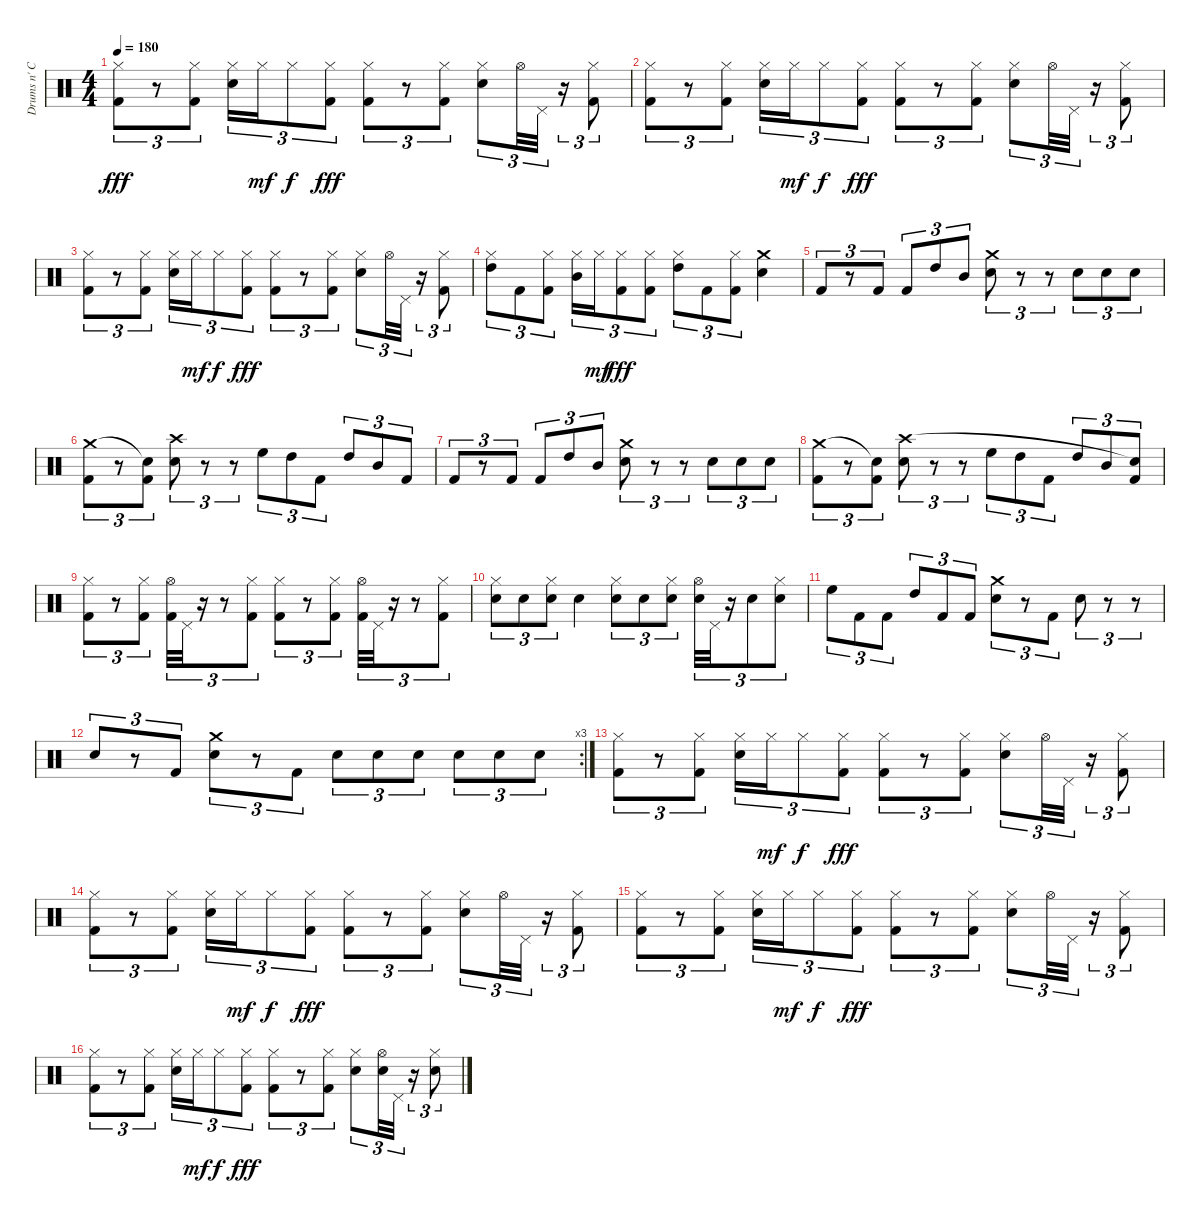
\track ("Drums n' Cymbals" "Drums n' C") {instrument percussion}
\staff {score}
\articulation defaults
\ts (4 4)
\tempo 180
\clef neutral
\ks c
("Hi-Hat (closed)" "Kick (hit) 2").8{tu (3 2) dy fff} r.8{tu (3 2)} ("Hi-Hat (closed)" "Kick (hit) 2").8{tu (3 2)} ("Hi-Hat (closed)" "Electric Snare (hit)").16{tu (3 2)} "Hi-Hat (closed)".16{tu (3 2) dy mf} "Hi-Hat (closed)".8{tu (3 2) dy f} ("Hi-Hat (closed)" "Kick (hit) 2").8{tu (3 2) dy fff} ("Hi-Hat (closed)" "Kick (hit) 2").8{tu (3 2)} r.8{tu (3 2)} ("Hi-Hat (closed)" "Kick (hit) 2").8{tu (3 2)} ("Hi-Hat (closed)" "Electric Snare (hit)").8{tu (3 2)} "Hi-Hat (open)".32{tu (3 2)} "Pedal Hi-Hat (hit)".32{tu (3 2)} r.16{tu (3 2)} ("Hi-Hat (closed)" "Kick (hit) 2").8{tu (3 2)} |
("Hi-Hat (closed)" "Kick (hit) 2").8{tu (3 2)} r.8{tu (3 2)} ("Hi-Hat (closed)" "Kick (hit) 2").8{tu (3 2)} ("Hi-Hat (closed)" "Electric Snare (hit)").16{tu (3 2)} "Hi-Hat (closed)".16{tu (3 2) dy mf} "Hi-Hat (closed)".8{tu (3 2) dy f} ("Hi-Hat (closed)" "Kick (hit) 2").8{tu (3 2) dy fff} ("Hi-Hat (closed)" "Kick (hit) 2").8{tu (3 2)} r.8{tu (3 2)} ("Hi-Hat (closed)" "Kick (hit) 2").8{tu (3 2)} ("Hi-Hat (closed)" "Electric Snare (hit)").8{tu (3 2)} "Hi-Hat (open)".32{tu (3 2)} "Pedal Hi-Hat (hit)".32{tu (3 2)} r.16{tu (3 2)} ("Hi-Hat (closed)" "Kick (hit) 2").8{tu (3 2)} |
("Hi-Hat (closed)" "Kick (hit) 2").8{tu (3 2)} r.8{tu (3 2)} ("Hi-Hat (closed)" "Kick (hit) 2").8{tu (3 2)} ("Hi-Hat (closed)" "Electric Snare (hit)").16{tu (3 2)} "Hi-Hat (closed)".16{tu (3 2) dy mf} "Hi-Hat (closed)".8{tu (3 2) dy f} ("Hi-Hat (closed)" "Kick (hit) 2").8{tu (3 2) dy fff} ("Hi-Hat (closed)" "Kick (hit) 2").8{tu (3 2)} r.8{tu (3 2)} ("Hi-Hat (closed)" "Kick (hit) 2").8{tu (3 2)} ("Hi-Hat (closed)" "Electric Snare (hit)").8{tu (3 2)} "Hi-Hat (open)".32{tu (3 2)} "Pedal Hi-Hat (hit)".32{tu (3 2)} r.16{tu (3 2)} ("Hi-Hat (closed)" "Kick (hit) 2").8{tu (3 2)} |
("Hi-Hat (closed)" "High Tom (hit)").8{tu (3 2)} "Kick (hit) 2".8{tu (3 2)} ("Hi-Hat (closed)" "Kick (hit) 2").8{tu (3 2)} ("Hi-Hat (closed)" "Mid Tom (hit)").16{tu (3 2)} "Hi-Hat (closed)".16{tu (3 2) dy mf} ("Hi-Hat (closed)" "Kick (hit) 2").8{tu (3 2) dy fff} ("Hi-Hat (closed)" "Kick (hit) 2").8{tu (3 2)} ("Hi-Hat (closed)" "High Tom (hit)").8{tu (3 2)} "Kick (hit) 2".8{tu (3 2)} ("Hi-Hat (closed)" "Kick (hit) 2").8{tu (3 2)} ("Electric Snare (hit)" "Crash medium (hit)").4 |
"Kick (hit) 2".8{tu (3 2)} r.8{tu (3 2)} "Kick (hit) 2".8{tu (3 2)} "Kick (hit) 2".8{tu (3 2)} "High Tom (hit)".8{tu (3 2)} "Mid Tom (hit)".8{tu (3 2)} ("Electric Snare (hit)" "Crash medium (hit)").8{tu (3 2)} r.8{tu (3 2)} r.8{tu (3 2)} "Electric Snare (hit)".8{tu (3 2)} "Electric Snare (hit)".8{tu (3 2)} "Electric Snare (hit)".8{tu (3 2)} |
("Kick (hit) 2" "Crash medium (hit)").8{tu (3 2)} r.8{tu (3 2)} ("Kick (hit) 2" "Snare (hit)"{t}).8{tu (3 2)} ("Electric Snare (hit)" "Crash high (hit)").8{tu (3 2)} r.8{tu (3 2)} r.8{tu (3 2)} "High Floor Tom (hit)".8{tu (3 2)} "High Tom (hit)".8{tu (3 2)} "Kick (hit) 2".8{tu (3 2)} "High Tom (hit)".8{tu (3 2)} "Mid Tom (hit)".8{tu (3 2)} "Kick (hit) 2".8{tu (3 2)} |
"Kick (hit) 2".8{tu (3 2)} r.8{tu (3 2)} "Kick (hit) 2".8{tu (3 2)} "Kick (hit) 2".8{tu (3 2)} "High Tom (hit)".8{tu (3 2)} "Mid Tom (hit)".8{tu (3 2)} ("Electric Snare (hit)" "Crash medium (hit)").8{tu (3 2)} r.8{tu (3 2)} r.8{tu (3 2)} "Electric Snare (hit)".8{tu (3 2)} "Electric Snare (hit)".8{tu (3 2)} "Electric Snare (hit)".8{tu (3 2)} |
("Kick (hit) 2" "Crash medium (hit)").8{tu (3 2)} r.8{tu (3 2)} ("Kick (hit) 2" "Snare (hit)"{t}).8{tu (3 2)} ("Electric Snare (hit)" "Crash high (hit)").8{tu (3 2)} r.8{tu (3 2)} r.8{tu (3 2)} "High Floor Tom (hit)".8{tu (3 2)} "High Tom (hit)".8{tu (3 2)} "Kick (hit) 2".8{tu (3 2)} "High Tom (hit)".8{tu (3 2)} "Mid Tom (hit)".8{tu (3 2)} ("Kick (hit) 2" "Snare (hit)"{t}).8{tu (3 2)} |
("Kick (hit) 2" "Hi-Hat (closed)").8{tu (3 2)} r.8{tu (3 2)} ("Hi-Hat (closed)" "Kick (hit) 2").8{tu (3 2)} ("Hi-Hat (open)" "Kick (hit) 2").32{tu (3 2)} "Pedal Hi-Hat (hit)".32{tu (3 2)} r.16{tu (3 2)} r.8{tu (3 2)} ("Hi-Hat (closed)" "Kick (hit) 2").8{tu (3 2)} ("Hi-Hat (closed)" "Kick (hit) 2").8{tu (3 2)} r.8{tu (3 2)} ("Hi-Hat (closed)" "Kick (hit) 2").8{tu (3 2)} ("Hi-Hat (open)" "Kick (hit) 2").32{tu (3 2)} "Pedal Hi-Hat (hit)".32{tu (3 2)} r.16{tu (3 2)} r.8{tu (3 2)} ("Hi-Hat (closed)" "Kick (hit) 2").8{tu (3 2)} |
("Hi-Hat (closed)" "Electric Snare (hit)").8{tu (3 2)} "Electric Snare (hit)".8{tu (3 2)} ("Hi-Hat (closed)" "Electric Snare (hit)").8{tu (3 2)} "Electric Snare (hit)".4 ("Hi-Hat (closed)" "Electric Snare (hit)").8{tu (3 2)} "Electric Snare (hit)".8{tu (3 2)} ("Hi-Hat (closed)" "Electric Snare (hit)").8{tu (3 2)} ("Hi-Hat (open)" "Electric Snare (hit)").32{tu (3 2)} "Pedal Hi-Hat (hit)".32{tu (3 2)} r.16{tu (3 2)} "Electric Snare (hit)".8{tu (3 2)} ("Hi-Hat (closed)" "Electric Snare (hit)").8{tu (3 2)} |
"High Floor Tom (hit)".8{tu (3 2)} "Kick (hit) 2".8{tu (3 2)} "Kick (hit) 2".8{tu (3 2)} "High Tom (hit)".8{tu (3 2)} "Kick (hit) 2".8{tu (3 2)} "Kick (hit) 2".8{tu (3 2)} ("Electric Snare (hit)" "Crash medium (hit)").8{tu (3 2)} r.8{tu (3 2)} "Kick (hit) 2".8{tu (3 2)} "Electric Snare (hit)".8{tu (3 2)} r.8{tu (3 2)} r.8{tu (3 2)} |
\rc 3 "Electric Snare (hit)".8{tu (3 2)}
r.8{tu (3 2)} "Kick (hit) 2".8{tu (3 2)} ("Electric Snare (hit)" "Crash medium (hit)").8{tu (3 2)} r.8{tu (3 2)} "Kick (hit) 2".8{tu (3 2)} "Electric Snare (hit)".8{tu (3 2)} "Electric Snare (hit)".8{tu (3 2)} "Electric Snare (hit)".8{tu (3 2)} "Electric Snare (hit)".8{tu (3 2)} "Electric Snare (hit)".8{tu (3 2)} "Electric Snare (hit)".8{tu (3 2)} |
("Hi-Hat (closed)" "Kick (hit) 2").8{tu (3 2)} r.8{tu (3 2)} ("Hi-Hat (closed)" "Kick (hit) 2").8{tu (3 2)} ("Hi-Hat (closed)" "Electric Snare (hit)").16{tu (3 2)} "Hi-Hat (closed)".16{tu (3 2) dy mf} "Hi-Hat (closed)".8{tu (3 2) dy f} ("Hi-Hat (closed)" "Kick (hit) 2").8{tu (3 2) dy fff} ("Hi-Hat (closed)" "Kick (hit) 2").8{tu (3 2)} r.8{tu (3 2)} ("Hi-Hat (closed)" "Kick (hit) 2").8{tu (3 2)} ("Hi-Hat (closed)" "Electric Snare (hit)").8{tu (3 2)} "Hi-Hat (open)".32{tu (3 2)} "Pedal Hi-Hat (hit)".32{tu (3 2)} r.16{tu (3 2)} ("Hi-Hat (closed)" "Kick (hit) 2").8{tu (3 2)} |
("Hi-Hat (closed)" "Kick (hit) 2").8{tu (3 2) volume 0} r.8{tu (3 2)} ("Hi-Hat (closed)" "Kick (hit) 2").8{tu (3 2)} ("Hi-Hat (closed)" "Electric Snare (hit)").16{tu (3 2)} "Hi-Hat (closed)".16{tu (3 2) dy mf} "Hi-Hat (closed)".8{tu (3 2) dy f} ("Hi-Hat (closed)" "Kick (hit) 2").8{tu (3 2) dy fff} ("Hi-Hat (closed)" "Kick (hit) 2").8{tu (3 2)} r.8{tu (3 2)} ("Hi-Hat (closed)" "Kick (hit) 2").8{tu (3 2)} ("Hi-Hat (closed)" "Electric Snare (hit)").8{tu (3 2)} "Hi-Hat (open)".32{tu (3 2)} "Pedal Hi-Hat (hit)".32{tu (3 2)} r.16{tu (3 2)} ("Hi-Hat (closed)" "Kick (hit) 2").8{tu (3 2)} |
("Hi-Hat (closed)" "Kick (hit) 2").8{tu (3 2)} r.8{tu (3 2)} ("Hi-Hat (closed)" "Kick (hit) 2").8{tu (3 2)} ("Hi-Hat (closed)" "Electric Snare (hit)").16{tu (3 2)} "Hi-Hat (closed)".16{tu (3 2) dy mf} "Hi-Hat (closed)".8{tu (3 2) dy f} ("Hi-Hat (closed)" "Kick (hit) 2").8{tu (3 2) dy fff} ("Hi-Hat (closed)" "Kick (hit) 2").8{tu (3 2)} r.8{tu (3 2)} ("Hi-Hat (closed)" "Kick (hit) 2").8{tu (3 2)} ("Hi-Hat (closed)" "Electric Snare (hit)").8{tu (3 2)} "Hi-Hat (open)".32{tu (3 2)} "Pedal Hi-Hat (hit)".32{tu (3 2)} r.16{tu (3 2)} ("Hi-Hat (closed)" "Kick (hit) 2").8{tu (3 2)} |
("Hi-Hat (closed)" "Kick (hit) 2").8{tu (3 2)} r.8{tu (3 2)} ("Hi-Hat (closed)" "Kick (hit) 2").8{tu (3 2)} ("Hi-Hat (closed)" "Electric Snare (hit)").16{tu (3 2)} "Hi-Hat (closed)".16{tu (3 2) dy mf} "Hi-Hat (closed)".8{tu (3 2) dy f} ("Hi-Hat (closed)" "Kick (hit) 2").8{tu (3 2) dy fff} ("Hi-Hat (closed)" "Kick (hit) 2").8{tu (3 2)} r.8{tu (3 2)} ("Hi-Hat (closed)" "Kick (hit) 2").8{tu (3 2)} ("Hi-Hat (closed)" "Electric Snare (hit)").8{tu (3 2)} ("Hi-Hat (open)" "Electric Snare (hit)").32{tu (3 2)} "Pedal Hi-Hat (hit)".32{tu (3 2)} r.16{tu (3 2)} ("Hi-Hat (closed)" "Electric Snare (hit)").8{tu (3 2)}
